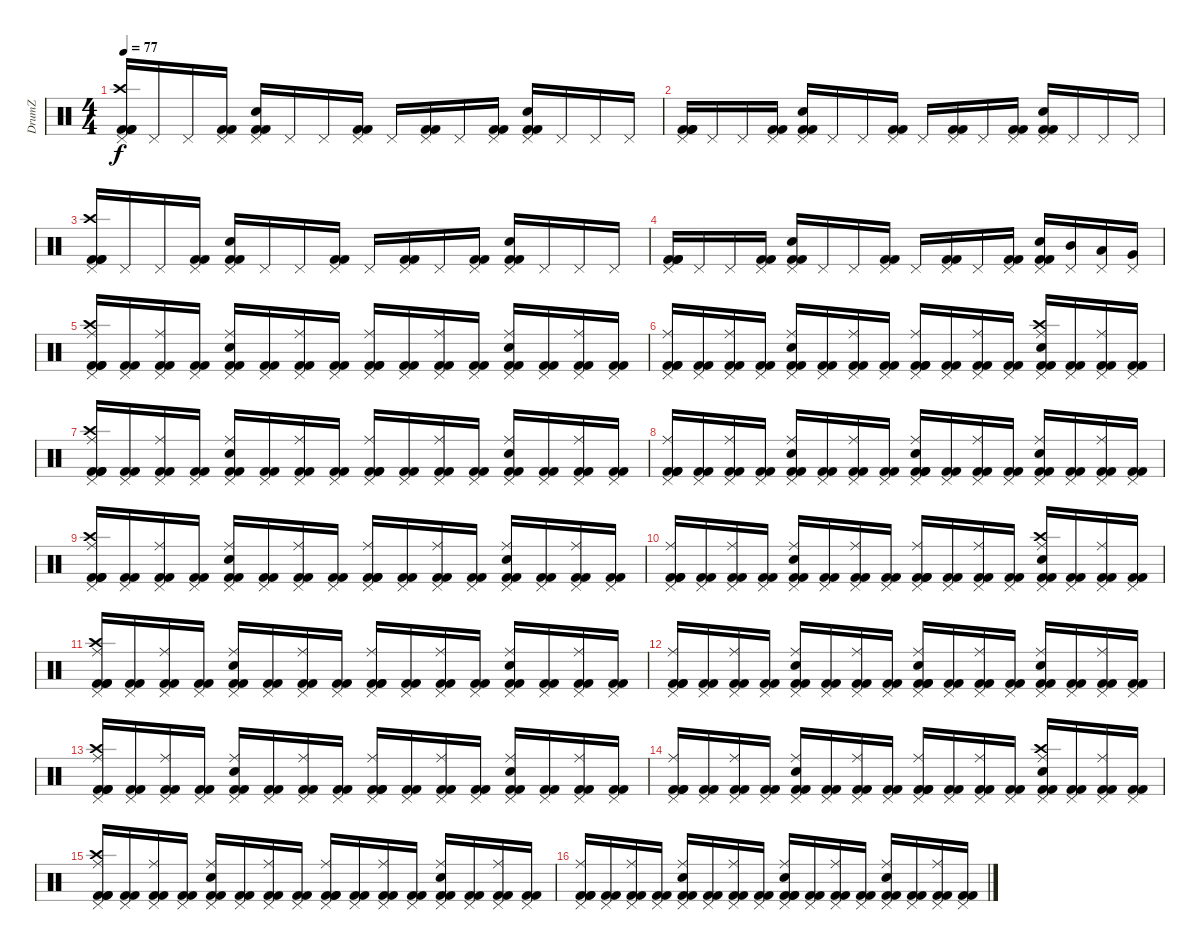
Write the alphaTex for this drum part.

\track ("DrumZ" "DrumZ") {instrument percussion}
\staff {score}
\articulation defaults
\ts (4 4)
\tempo 77
\clef neutral
\ks c
("Pedal Hi-Hat (hit)" "Crash high (hit)" "Kick (hit) 2" "Kick (hit) 2" "Kick (hit) 2").16{dy f} "Pedal Hi-Hat (hit)".16 "Pedal Hi-Hat (hit)".16 ("Pedal Hi-Hat (hit)" "Kick (hit) 2" "Kick (hit) 2").16 ("Pedal Hi-Hat (hit)" "Electric Snare (hit)" "Kick (hit) 2" "Kick (hit) 2").16 "Pedal Hi-Hat (hit)".16 "Pedal Hi-Hat (hit)".16 ("Pedal Hi-Hat (hit)" "Kick (hit) 2" "Kick (hit) 2").16 "Pedal Hi-Hat (hit)".16 ("Pedal Hi-Hat (hit)" "Kick (hit) 2" "Kick (hit) 2").16 "Pedal Hi-Hat (hit)".16 ("Pedal Hi-Hat (hit)" "Kick (hit) 2" "Kick (hit) 2").16 ("Pedal Hi-Hat (hit)" "Electric Snare (hit)" "Kick (hit) 2" "Kick (hit) 2").16 "Pedal Hi-Hat (hit)".16 "Pedal Hi-Hat (hit)".16 "Pedal Hi-Hat (hit)".16 |
("Pedal Hi-Hat (hit)" "Kick (hit) 2" "Kick (hit) 2" "Kick (hit) 2").16 "Pedal Hi-Hat (hit)".16 "Pedal Hi-Hat (hit)".16 ("Pedal Hi-Hat (hit)" "Kick (hit) 2" "Kick (hit) 2").16 ("Pedal Hi-Hat (hit)" "Electric Snare (hit)" "Kick (hit) 2" "Kick (hit) 2").16 "Pedal Hi-Hat (hit)".16 "Pedal Hi-Hat (hit)".16 ("Pedal Hi-Hat (hit)" "Kick (hit) 2" "Kick (hit) 2").16 "Pedal Hi-Hat (hit)".16 ("Pedal Hi-Hat (hit)" "Kick (hit) 2" "Kick (hit) 2").16 "Pedal Hi-Hat (hit)".16 ("Pedal Hi-Hat (hit)" "Kick (hit) 2" "Kick (hit) 2").16 ("Pedal Hi-Hat (hit)" "Electric Snare (hit)" "Kick (hit) 2" "Kick (hit) 2").16 "Pedal Hi-Hat (hit)".16 "Pedal Hi-Hat (hit)".16 "Pedal Hi-Hat (hit)".16 |
("Pedal Hi-Hat (hit)" "Crash high (hit)" "Kick (hit) 2" "Kick (hit) 2" "Kick (hit) 2").16 "Pedal Hi-Hat (hit)".16 "Pedal Hi-Hat (hit)".16 ("Pedal Hi-Hat (hit)" "Kick (hit) 2" "Kick (hit) 2").16 ("Pedal Hi-Hat (hit)" "Electric Snare (hit)" "Kick (hit) 2" "Kick (hit) 2").16 "Pedal Hi-Hat (hit)".16 "Pedal Hi-Hat (hit)".16 ("Pedal Hi-Hat (hit)" "Kick (hit) 2" "Kick (hit) 2").16 "Pedal Hi-Hat (hit)".16 ("Pedal Hi-Hat (hit)" "Kick (hit) 2" "Kick (hit) 2").16 "Pedal Hi-Hat (hit)".16 ("Pedal Hi-Hat (hit)" "Kick (hit) 2" "Kick (hit) 2").16 ("Pedal Hi-Hat (hit)" "Electric Snare (hit)" "Kick (hit) 2" "Kick (hit) 2").16 "Pedal Hi-Hat (hit)".16 "Pedal Hi-Hat (hit)".16 "Pedal Hi-Hat (hit)".16 |
("Pedal Hi-Hat (hit)" "Kick (hit) 2" "Kick (hit) 2" "Kick (hit) 2").16 "Pedal Hi-Hat (hit)".16 "Pedal Hi-Hat (hit)".16 ("Pedal Hi-Hat (hit)" "Kick (hit) 2" "Kick (hit) 2").16 ("Pedal Hi-Hat (hit)" "Electric Snare (hit)" "Kick (hit) 2" "Kick (hit) 2").16 "Pedal Hi-Hat (hit)".16 "Pedal Hi-Hat (hit)".16 ("Pedal Hi-Hat (hit)" "Kick (hit) 2" "Kick (hit) 2").16 "Pedal Hi-Hat (hit)".16 ("Pedal Hi-Hat (hit)" "Kick (hit) 2" "Kick (hit) 2").16 "Pedal Hi-Hat (hit)".16 ("Pedal Hi-Hat (hit)" "Kick (hit) 2" "Kick (hit) 2").16 ("Pedal Hi-Hat (hit)" "Electric Snare (hit)" "Kick (hit) 2" "Kick (hit) 2").16 ("Pedal Hi-Hat (hit)" "Mid Tom (hit)").16 ("Pedal Hi-Hat (hit)" "Low Tom (hit)").16 ("Pedal Hi-Hat (hit)" "Very Low Tom (hit)").16 |
("Ride (middle)" "Crash high (hit)" "Kick (hit) 2" "Kick (hit) 2" "Kick (hit) 2" "Pedal Hi-Hat (hit)").16 ("Kick (hit) 2" "Kick (hit) 2" "Pedal Hi-Hat (hit)").16 ("Ride (middle)" "Kick (hit) 2" "Kick (hit) 2" "Pedal Hi-Hat (hit)").16 ("Kick (hit) 2" "Kick (hit) 2" "Pedal Hi-Hat (hit)").16 ("Ride (middle)" "Electric Snare (hit)" "Kick (hit) 2" "Kick (hit) 2" "Pedal Hi-Hat (hit)").16 ("Kick (hit) 2" "Kick (hit) 2" "Pedal Hi-Hat (hit)").16 ("Ride (middle)" "Kick (hit) 2" "Kick (hit) 2" "Pedal Hi-Hat (hit)").16 ("Kick (hit) 2" "Kick (hit) 2" "Pedal Hi-Hat (hit)").16 ("Ride (middle)" "Kick (hit) 2" "Kick (hit) 2" "Kick (hit) 2" "Pedal Hi-Hat (hit)").16 ("Kick (hit) 2" "Kick (hit) 2" "Pedal Hi-Hat (hit)").16 ("Ride (middle)" "Kick (hit) 2" "Kick (hit) 2" "Pedal Hi-Hat (hit)").16 ("Kick (hit) 2" "Kick (hit) 2" "Pedal Hi-Hat (hit)").16 ("Ride (middle)" "Electric Snare (hit)" "Kick (hit) 2" "Kick (hit) 2" "Pedal Hi-Hat (hit)").16 ("Kick (hit) 2" "Kick (hit) 2" "Pedal Hi-Hat (hit)").16 ("Ride (middle)" "Kick (hit) 2" "Kick (hit) 2" "Pedal Hi-Hat (hit)").16 ("Kick (hit) 2" "Kick (hit) 2" "Pedal Hi-Hat (hit)").16 |
("Pedal Hi-Hat (hit)" "Kick (hit) 2" "Kick (hit) 2" "Kick (hit) 2" "Ride (middle)").16 ("Pedal Hi-Hat (hit)" "Kick (hit) 2" "Kick (hit) 2").16 ("Pedal Hi-Hat (hit)" "Kick (hit) 2" "Kick (hit) 2" "Ride (middle)").16 ("Pedal Hi-Hat (hit)" "Kick (hit) 2" "Kick (hit) 2").16 ("Pedal Hi-Hat (hit)" "Electric Snare (hit)" "Kick (hit) 2" "Kick (hit) 2" "Ride (middle)").16 ("Pedal Hi-Hat (hit)" "Kick (hit) 2" "Kick (hit) 2").16 ("Pedal Hi-Hat (hit)" "Kick (hit) 2" "Kick (hit) 2" "Ride (middle)").16 ("Pedal Hi-Hat (hit)" "Kick (hit) 2" "Kick (hit) 2").16 ("Pedal Hi-Hat (hit)" "Kick (hit) 2" "Kick (hit) 2" "Kick (hit) 2" "Ride (middle)").16 ("Pedal Hi-Hat (hit)" "Kick (hit) 2" "Kick (hit) 2").16 ("Pedal Hi-Hat (hit)" "Kick (hit) 2" "Kick (hit) 2" "Ride (middle)").16 ("Pedal Hi-Hat (hit)" "Kick (hit) 2" "Kick (hit) 2").16 ("Pedal Hi-Hat (hit)" "Electric Snare (hit)" "Kick (hit) 2" "Kick (hit) 2" "Crash high (hit)" "Ride (middle)").16 ("Pedal Hi-Hat (hit)" "Kick (hit) 2" "Kick (hit) 2").16 ("Pedal Hi-Hat (hit)" "Kick (hit) 2" "Kick (hit) 2" "Ride (middle)").16 ("Pedal Hi-Hat (hit)" "Kick (hit) 2" "Kick (hit) 2").16 |
("Pedal Hi-Hat (hit)" "Crash high (hit)" "Kick (hit) 2" "Kick (hit) 2" "Kick (hit) 2" "Ride (middle)").16 ("Pedal Hi-Hat (hit)" "Kick (hit) 2" "Kick (hit) 2").16 ("Pedal Hi-Hat (hit)" "Kick (hit) 2" "Kick (hit) 2" "Ride (middle)").16 ("Pedal Hi-Hat (hit)" "Kick (hit) 2" "Kick (hit) 2").16 ("Pedal Hi-Hat (hit)" "Electric Snare (hit)" "Kick (hit) 2" "Kick (hit) 2" "Ride (middle)").16 ("Pedal Hi-Hat (hit)" "Kick (hit) 2" "Kick (hit) 2").16 ("Pedal Hi-Hat (hit)" "Kick (hit) 2" "Kick (hit) 2" "Ride (middle)").16 ("Pedal Hi-Hat (hit)" "Kick (hit) 2" "Kick (hit) 2").16 ("Pedal Hi-Hat (hit)" "Kick (hit) 2" "Kick (hit) 2" "Kick (hit) 2" "Ride (middle)").16 ("Pedal Hi-Hat (hit)" "Kick (hit) 2" "Kick (hit) 2").16 ("Pedal Hi-Hat (hit)" "Kick (hit) 2" "Kick (hit) 2" "Ride (middle)").16 ("Pedal Hi-Hat (hit)" "Kick (hit) 2" "Kick (hit) 2").16 ("Pedal Hi-Hat (hit)" "Electric Snare (hit)" "Kick (hit) 2" "Kick (hit) 2" "Ride (middle)").16 ("Pedal Hi-Hat (hit)" "Kick (hit) 2" "Kick (hit) 2").16 ("Pedal Hi-Hat (hit)" "Kick (hit) 2" "Kick (hit) 2" "Ride (middle)").16 ("Pedal Hi-Hat (hit)" "Kick (hit) 2" "Kick (hit) 2").16 |
("Pedal Hi-Hat (hit)" "Kick (hit) 2" "Kick (hit) 2" "Kick (hit) 2" "Ride (middle)").16 ("Pedal Hi-Hat (hit)" "Kick (hit) 2" "Kick (hit) 2").16 ("Pedal Hi-Hat (hit)" "Kick (hit) 2" "Kick (hit) 2" "Ride (middle)").16 ("Pedal Hi-Hat (hit)" "Kick (hit) 2" "Kick (hit) 2").16 ("Pedal Hi-Hat (hit)" "Electric Snare (hit)" "Kick (hit) 2" "Kick (hit) 2" "Ride (middle)").16 ("Pedal Hi-Hat (hit)" "Kick (hit) 2" "Kick (hit) 2").16 ("Pedal Hi-Hat (hit)" "Kick (hit) 2" "Kick (hit) 2" "Ride (middle)").16 ("Pedal Hi-Hat (hit)" "Kick (hit) 2" "Kick (hit) 2").16 ("Pedal Hi-Hat (hit)" "Electric Snare (hit)" "Kick (hit) 2" "Kick (hit) 2" "Kick (hit) 2" "Ride (middle)").16 ("Pedal Hi-Hat (hit)" "Kick (hit) 2" "Kick (hit) 2").16 ("Pedal Hi-Hat (hit)" "Kick (hit) 2" "Kick (hit) 2" "Ride (middle)").16 ("Pedal Hi-Hat (hit)" "Kick (hit) 2" "Kick (hit) 2").16 ("Pedal Hi-Hat (hit)" "Electric Snare (hit)" "Kick (hit) 2" "Kick (hit) 2" "Ride (middle)").16 ("Pedal Hi-Hat (hit)" "Kick (hit) 2" "Kick (hit) 2").16 ("Pedal Hi-Hat (hit)" "Kick (hit) 2" "Kick (hit) 2" "Ride (middle)").16 ("Pedal Hi-Hat (hit)" "Kick (hit) 2" "Kick (hit) 2").16 |
("Ride (middle)" "Crash high (hit)" "Kick (hit) 2" "Kick (hit) 2" "Kick (hit) 2" "Pedal Hi-Hat (hit)").16 ("Kick (hit) 2" "Kick (hit) 2" "Pedal Hi-Hat (hit)").16 ("Ride (middle)" "Kick (hit) 2" "Kick (hit) 2" "Pedal Hi-Hat (hit)").16 ("Kick (hit) 2" "Kick (hit) 2" "Pedal Hi-Hat (hit)").16 ("Ride (middle)" "Electric Snare (hit)" "Kick (hit) 2" "Kick (hit) 2" "Pedal Hi-Hat (hit)").16 ("Kick (hit) 2" "Kick (hit) 2" "Pedal Hi-Hat (hit)").16 ("Ride (middle)" "Kick (hit) 2" "Kick (hit) 2" "Pedal Hi-Hat (hit)").16 ("Kick (hit) 2" "Kick (hit) 2" "Pedal Hi-Hat (hit)").16 ("Ride (middle)" "Kick (hit) 2" "Kick (hit) 2" "Kick (hit) 2" "Pedal Hi-Hat (hit)").16 ("Kick (hit) 2" "Kick (hit) 2" "Pedal Hi-Hat (hit)").16 ("Ride (middle)" "Kick (hit) 2" "Kick (hit) 2" "Pedal Hi-Hat (hit)").16 ("Kick (hit) 2" "Kick (hit) 2" "Pedal Hi-Hat (hit)").16 ("Ride (middle)" "Electric Snare (hit)" "Kick (hit) 2" "Kick (hit) 2" "Pedal Hi-Hat (hit)").16 ("Kick (hit) 2" "Kick (hit) 2" "Pedal Hi-Hat (hit)").16 ("Ride (middle)" "Kick (hit) 2" "Kick (hit) 2" "Pedal Hi-Hat (hit)").16 ("Kick (hit) 2" "Kick (hit) 2" "Pedal Hi-Hat (hit)").16 |
("Pedal Hi-Hat (hit)" "Kick (hit) 2" "Kick (hit) 2" "Kick (hit) 2" "Ride (middle)").16 ("Pedal Hi-Hat (hit)" "Kick (hit) 2" "Kick (hit) 2").16 ("Pedal Hi-Hat (hit)" "Kick (hit) 2" "Kick (hit) 2" "Ride (middle)").16 ("Pedal Hi-Hat (hit)" "Kick (hit) 2" "Kick (hit) 2").16 ("Pedal Hi-Hat (hit)" "Electric Snare (hit)" "Kick (hit) 2" "Kick (hit) 2" "Ride (middle)").16 ("Pedal Hi-Hat (hit)" "Kick (hit) 2" "Kick (hit) 2").16 ("Pedal Hi-Hat (hit)" "Kick (hit) 2" "Kick (hit) 2" "Ride (middle)").16 ("Pedal Hi-Hat (hit)" "Kick (hit) 2" "Kick (hit) 2").16 ("Pedal Hi-Hat (hit)" "Kick (hit) 2" "Kick (hit) 2" "Kick (hit) 2" "Ride (middle)").16 ("Pedal Hi-Hat (hit)" "Kick (hit) 2" "Kick (hit) 2").16 ("Pedal Hi-Hat (hit)" "Kick (hit) 2" "Kick (hit) 2" "Ride (middle)").16 ("Pedal Hi-Hat (hit)" "Kick (hit) 2" "Kick (hit) 2").16 ("Pedal Hi-Hat (hit)" "Electric Snare (hit)" "Kick (hit) 2" "Kick (hit) 2" "Crash high (hit)" "Ride (middle)").16 ("Pedal Hi-Hat (hit)" "Kick (hit) 2" "Kick (hit) 2").16 ("Pedal Hi-Hat (hit)" "Kick (hit) 2" "Kick (hit) 2" "Ride (middle)").16 ("Pedal Hi-Hat (hit)" "Kick (hit) 2" "Kick (hit) 2").16 |
("Pedal Hi-Hat (hit)" "Crash high (hit)" "Kick (hit) 2" "Kick (hit) 2" "Kick (hit) 2" "Ride (middle)").16 ("Pedal Hi-Hat (hit)" "Kick (hit) 2" "Kick (hit) 2").16 ("Pedal Hi-Hat (hit)" "Kick (hit) 2" "Kick (hit) 2" "Ride (middle)").16 ("Pedal Hi-Hat (hit)" "Kick (hit) 2" "Kick (hit) 2").16 ("Pedal Hi-Hat (hit)" "Electric Snare (hit)" "Kick (hit) 2" "Kick (hit) 2" "Ride (middle)").16 ("Pedal Hi-Hat (hit)" "Kick (hit) 2" "Kick (hit) 2").16 ("Pedal Hi-Hat (hit)" "Kick (hit) 2" "Kick (hit) 2" "Ride (middle)").16 ("Pedal Hi-Hat (hit)" "Kick (hit) 2" "Kick (hit) 2").16 ("Pedal Hi-Hat (hit)" "Kick (hit) 2" "Kick (hit) 2" "Kick (hit) 2" "Ride (middle)").16 ("Pedal Hi-Hat (hit)" "Kick (hit) 2" "Kick (hit) 2").16 ("Pedal Hi-Hat (hit)" "Kick (hit) 2" "Kick (hit) 2" "Ride (middle)").16 ("Pedal Hi-Hat (hit)" "Kick (hit) 2" "Kick (hit) 2").16 ("Pedal Hi-Hat (hit)" "Electric Snare (hit)" "Kick (hit) 2" "Kick (hit) 2" "Ride (middle)").16 ("Pedal Hi-Hat (hit)" "Kick (hit) 2" "Kick (hit) 2").16 ("Pedal Hi-Hat (hit)" "Kick (hit) 2" "Kick (hit) 2" "Ride (middle)").16 ("Pedal Hi-Hat (hit)" "Kick (hit) 2" "Kick (hit) 2").16 |
("Pedal Hi-Hat (hit)" "Kick (hit) 2" "Kick (hit) 2" "Kick (hit) 2" "Ride (middle)").16 ("Pedal Hi-Hat (hit)" "Kick (hit) 2" "Kick (hit) 2").16 ("Pedal Hi-Hat (hit)" "Kick (hit) 2" "Kick (hit) 2" "Ride (middle)").16 ("Pedal Hi-Hat (hit)" "Kick (hit) 2" "Kick (hit) 2").16 ("Pedal Hi-Hat (hit)" "Electric Snare (hit)" "Kick (hit) 2" "Kick (hit) 2" "Ride (middle)").16 ("Pedal Hi-Hat (hit)" "Kick (hit) 2" "Kick (hit) 2").16 ("Pedal Hi-Hat (hit)" "Kick (hit) 2" "Kick (hit) 2" "Ride (middle)").16 ("Pedal Hi-Hat (hit)" "Kick (hit) 2" "Kick (hit) 2").16 ("Pedal Hi-Hat (hit)" "Electric Snare (hit)" "Kick (hit) 2" "Kick (hit) 2" "Kick (hit) 2" "Ride (middle)").16 ("Pedal Hi-Hat (hit)" "Kick (hit) 2" "Kick (hit) 2").16 ("Pedal Hi-Hat (hit)" "Kick (hit) 2" "Kick (hit) 2" "Ride (middle)").16 ("Pedal Hi-Hat (hit)" "Kick (hit) 2" "Kick (hit) 2").16 ("Pedal Hi-Hat (hit)" "Electric Snare (hit)" "Kick (hit) 2" "Kick (hit) 2" "Ride (middle)").16 ("Pedal Hi-Hat (hit)" "Kick (hit) 2" "Kick (hit) 2").16 ("Pedal Hi-Hat (hit)" "Kick (hit) 2" "Kick (hit) 2" "Ride (middle)").16 ("Pedal Hi-Hat (hit)" "Kick (hit) 2" "Kick (hit) 2").16 |
("Ride (middle)" "Crash high (hit)" "Kick (hit) 2" "Kick (hit) 2" "Kick (hit) 2" "Pedal Hi-Hat (hit)").16 ("Kick (hit) 2" "Kick (hit) 2" "Pedal Hi-Hat (hit)").16 ("Ride (middle)" "Kick (hit) 2" "Kick (hit) 2" "Pedal Hi-Hat (hit)").16 ("Kick (hit) 2" "Kick (hit) 2" "Pedal Hi-Hat (hit)").16 ("Ride (middle)" "Electric Snare (hit)" "Kick (hit) 2" "Kick (hit) 2" "Pedal Hi-Hat (hit)").16 ("Kick (hit) 2" "Kick (hit) 2" "Pedal Hi-Hat (hit)").16 ("Ride (middle)" "Kick (hit) 2" "Kick (hit) 2" "Pedal Hi-Hat (hit)").16 ("Kick (hit) 2" "Kick (hit) 2" "Pedal Hi-Hat (hit)").16 ("Ride (middle)" "Kick (hit) 2" "Kick (hit) 2" "Kick (hit) 2" "Pedal Hi-Hat (hit)").16 ("Kick (hit) 2" "Kick (hit) 2" "Pedal Hi-Hat (hit)").16 ("Ride (middle)" "Kick (hit) 2" "Kick (hit) 2" "Pedal Hi-Hat (hit)").16 ("Kick (hit) 2" "Kick (hit) 2" "Pedal Hi-Hat (hit)").16 ("Ride (middle)" "Electric Snare (hit)" "Kick (hit) 2" "Kick (hit) 2" "Pedal Hi-Hat (hit)").16 ("Kick (hit) 2" "Kick (hit) 2" "Pedal Hi-Hat (hit)").16 ("Ride (middle)" "Kick (hit) 2" "Kick (hit) 2" "Pedal Hi-Hat (hit)").16 ("Kick (hit) 2" "Kick (hit) 2" "Pedal Hi-Hat (hit)").16 |
("Pedal Hi-Hat (hit)" "Kick (hit) 2" "Kick (hit) 2" "Kick (hit) 2" "Ride (middle)").16 ("Pedal Hi-Hat (hit)" "Kick (hit) 2" "Kick (hit) 2").16 ("Pedal Hi-Hat (hit)" "Kick (hit) 2" "Kick (hit) 2" "Ride (middle)").16 ("Pedal Hi-Hat (hit)" "Kick (hit) 2" "Kick (hit) 2").16 ("Pedal Hi-Hat (hit)" "Electric Snare (hit)" "Kick (hit) 2" "Kick (hit) 2" "Ride (middle)").16 ("Pedal Hi-Hat (hit)" "Kick (hit) 2" "Kick (hit) 2").16 ("Pedal Hi-Hat (hit)" "Kick (hit) 2" "Kick (hit) 2" "Ride (middle)").16 ("Pedal Hi-Hat (hit)" "Kick (hit) 2" "Kick (hit) 2").16 ("Pedal Hi-Hat (hit)" "Kick (hit) 2" "Kick (hit) 2" "Kick (hit) 2" "Ride (middle)").16 ("Pedal Hi-Hat (hit)" "Kick (hit) 2" "Kick (hit) 2").16 ("Pedal Hi-Hat (hit)" "Kick (hit) 2" "Kick (hit) 2" "Ride (middle)").16 ("Pedal Hi-Hat (hit)" "Kick (hit) 2" "Kick (hit) 2").16 ("Pedal Hi-Hat (hit)" "Electric Snare (hit)" "Kick (hit) 2" "Kick (hit) 2" "Crash high (hit)" "Ride (middle)").16 ("Pedal Hi-Hat (hit)" "Kick (hit) 2" "Kick (hit) 2").16 ("Pedal Hi-Hat (hit)" "Kick (hit) 2" "Kick (hit) 2" "Ride (middle)").16 ("Pedal Hi-Hat (hit)" "Kick (hit) 2" "Kick (hit) 2").16 |
("Pedal Hi-Hat (hit)" "Crash high (hit)" "Kick (hit) 2" "Kick (hit) 2" "Kick (hit) 2" "Ride (middle)").16 ("Pedal Hi-Hat (hit)" "Kick (hit) 2" "Kick (hit) 2").16 ("Pedal Hi-Hat (hit)" "Kick (hit) 2" "Kick (hit) 2" "Ride (middle)").16 ("Pedal Hi-Hat (hit)" "Kick (hit) 2" "Kick (hit) 2").16 ("Pedal Hi-Hat (hit)" "Electric Snare (hit)" "Kick (hit) 2" "Kick (hit) 2" "Ride (middle)").16 ("Pedal Hi-Hat (hit)" "Kick (hit) 2" "Kick (hit) 2").16 ("Pedal Hi-Hat (hit)" "Kick (hit) 2" "Kick (hit) 2" "Ride (middle)").16 ("Pedal Hi-Hat (hit)" "Kick (hit) 2" "Kick (hit) 2").16 ("Pedal Hi-Hat (hit)" "Kick (hit) 2" "Kick (hit) 2" "Kick (hit) 2" "Ride (middle)").16 ("Pedal Hi-Hat (hit)" "Kick (hit) 2" "Kick (hit) 2").16 ("Pedal Hi-Hat (hit)" "Kick (hit) 2" "Kick (hit) 2" "Ride (middle)").16 ("Pedal Hi-Hat (hit)" "Kick (hit) 2" "Kick (hit) 2").16 ("Pedal Hi-Hat (hit)" "Electric Snare (hit)" "Kick (hit) 2" "Kick (hit) 2" "Ride (middle)").16 ("Pedal Hi-Hat (hit)" "Kick (hit) 2" "Kick (hit) 2").16 ("Pedal Hi-Hat (hit)" "Kick (hit) 2" "Kick (hit) 2" "Ride (middle)").16 ("Pedal Hi-Hat (hit)" "Kick (hit) 2" "Kick (hit) 2").16 |
("Pedal Hi-Hat (hit)" "Kick (hit) 2" "Kick (hit) 2" "Kick (hit) 2" "Ride (middle)").16 ("Pedal Hi-Hat (hit)" "Kick (hit) 2" "Kick (hit) 2").16 ("Pedal Hi-Hat (hit)" "Kick (hit) 2" "Kick (hit) 2" "Ride (middle)").16 ("Pedal Hi-Hat (hit)" "Kick (hit) 2" "Kick (hit) 2").16 ("Pedal Hi-Hat (hit)" "Electric Snare (hit)" "Kick (hit) 2" "Kick (hit) 2" "Ride (middle)").16 ("Pedal Hi-Hat (hit)" "Kick (hit) 2" "Kick (hit) 2").16 ("Pedal Hi-Hat (hit)" "Kick (hit) 2" "Kick (hit) 2" "Ride (middle)").16 ("Pedal Hi-Hat (hit)" "Kick (hit) 2" "Kick (hit) 2").16 ("Pedal Hi-Hat (hit)" "Electric Snare (hit)" "Kick (hit) 2" "Kick (hit) 2" "Kick (hit) 2" "Ride (middle)").16 ("Pedal Hi-Hat (hit)" "Kick (hit) 2" "Kick (hit) 2").16 ("Pedal Hi-Hat (hit)" "Kick (hit) 2" "Kick (hit) 2" "Ride (middle)").16 ("Pedal Hi-Hat (hit)" "Kick (hit) 2" "Kick (hit) 2").16 ("Pedal Hi-Hat (hit)" "Electric Snare (hit)" "Kick (hit) 2" "Kick (hit) 2" "Ride (middle)").16 ("Pedal Hi-Hat (hit)" "Kick (hit) 2" "Kick (hit) 2").16 ("Pedal Hi-Hat (hit)" "Kick (hit) 2" "Kick (hit) 2" "Ride (middle)").16 ("Pedal Hi-Hat (hit)" "Kick (hit) 2" "Kick (hit) 2").16
